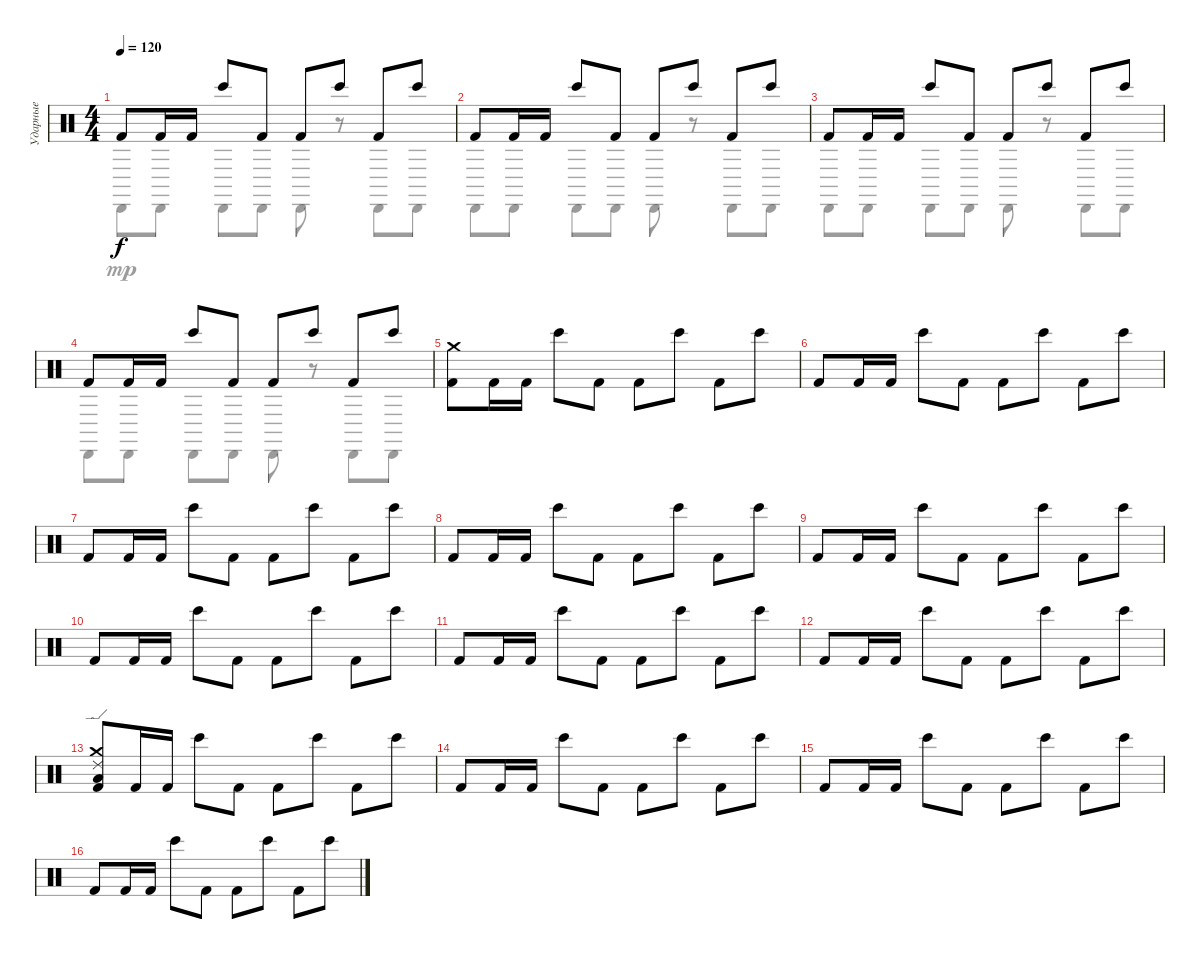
\track ("Ударные" "Ударные") {instrument percussion}
\staff {score}
\articulation defaults
\voice
\ts (4 4)
\tempo 120
\clef neutral
\ks c "Kick (hit) 2".8{dy f} "Kick (hit) 2".16 "Kick (hit) 2".16 "Bongo High (hit)".8 "Kick (hit) 2".8 "Kick (hit) 2".8 "Bongo High (hit)".8 "Kick (hit) 2".8 "Bongo High (hit)".8
|
"Kick (hit) 2".8 "Kick (hit) 2".16 "Kick (hit) 2".16 "Bongo High (hit)".8 "Kick (hit) 2".8 "Kick (hit) 2".8 "Bongo High (hit)".8 "Kick (hit) 2".8 "Bongo High (hit)".8 |
"Kick (hit) 2".8 "Kick (hit) 2".16 "Kick (hit) 2".16 "Bongo High (hit)".8 "Kick (hit) 2".8 "Kick (hit) 2".8 "Bongo High (hit)".8 "Kick (hit) 2".8 "Bongo High (hit)".8 |
"Kick (hit) 2".8 "Kick (hit) 2".16 "Kick (hit) 2".16 "Bongo High (hit)".8 "Kick (hit) 2".8 "Kick (hit) 2".8 "Bongo High (hit)".8 "Kick (hit) 2".8 "Bongo High (hit)".8 |
("Kick (hit) 2" "Crash medium (hit)").8 "Kick (hit) 2".16 "Kick (hit) 2".16 "Bongo High (hit)".8 "Kick (hit) 2".8 "Kick (hit) 2".8 "Bongo High (hit)".8 "Kick (hit) 2".8 "Bongo High (hit)".8 |
"Kick (hit) 2".8 "Kick (hit) 2".16 "Kick (hit) 2".16 "Bongo High (hit)".8 "Kick (hit) 2".8 "Kick (hit) 2".8 "Bongo High (hit)".8 "Kick (hit) 2".8 "Bongo High (hit)".8 |
"Kick (hit) 2".8 "Kick (hit) 2".16 "Kick (hit) 2".16 "Bongo High (hit)".8 "Kick (hit) 2".8 "Kick (hit) 2".8 "Bongo High (hit)".8 "Kick (hit) 2".8 "Bongo High (hit)".8 |
"Kick (hit) 2".8 "Kick (hit) 2".16 "Kick (hit) 2".16 "Bongo High (hit)".8 "Kick (hit) 2".8 "Kick (hit) 2".8 "Bongo High (hit)".8 "Kick (hit) 2".8 "Bongo High (hit)".8 |
"Kick (hit) 2".8 "Kick (hit) 2".16 "Kick (hit) 2".16 "Bongo High (hit)".8 "Kick (hit) 2".8 "Kick (hit) 2".8 "Bongo High (hit)".8 "Kick (hit) 2".8 "Bongo High (hit)".8 |
"Kick (hit) 2".8 "Kick (hit) 2".16 "Kick (hit) 2".16 "Bongo High (hit)".8 "Kick (hit) 2".8 "Kick (hit) 2".8 "Bongo High (hit)".8 "Kick (hit) 2".8 "Bongo High (hit)".8 |
"Kick (hit) 2".8 "Kick (hit) 2".16 "Kick (hit) 2".16 "Bongo High (hit)".8 "Kick (hit) 2".8 "Kick (hit) 2".8 "Bongo High (hit)".8 "Kick (hit) 2".8 "Bongo High (hit)".8 |
"Kick (hit) 2".8 "Kick (hit) 2".16 "Kick (hit) 2".16 "Bongo High (hit)".8 "Kick (hit) 2".8 "Kick (hit) 2".8 "Bongo High (hit)".8 "Kick (hit) 2".8 "Bongo High (hit)".8 |
("Kick (hit) 2" "Crash medium (hit)" "Low Tom (hit)" "Ride (edge) 2").8 "Kick (hit) 2".16 "Kick (hit) 2".16 "Bongo High (hit)".8 "Kick (hit) 2".8 "Kick (hit) 2".8 "Bongo High (hit)".8 "Kick (hit) 2".8 "Bongo High (hit)".8 |
"Kick (hit) 2".8 "Kick (hit) 2".16 "Kick (hit) 2".16 "Bongo High (hit)".8 "Kick (hit) 2".8 "Kick (hit) 2".8 "Bongo High (hit)".8 "Kick (hit) 2".8 "Bongo High (hit)".8 |
"Kick (hit) 2".8 "Kick (hit) 2".16 "Kick (hit) 2".16 "Bongo High (hit)".8 "Kick (hit) 2".8 "Kick (hit) 2".8 "Bongo High (hit)".8 "Kick (hit) 2".8 "Bongo High (hit)".8 |
"Kick (hit) 2".8 "Kick (hit) 2".16 "Kick (hit) 2".16 "Bongo High (hit)".8 "Kick (hit) 2".8 "Kick (hit) 2".8 "Bongo High (hit)".8 "Kick (hit) 2".8 "Bongo High (hit)".8
\voice
\clef neutral
\ottava regular
\simile none
\ks c "Cabasa (hit)".8{dy mp} "Cabasa (hit)".8 "Cabasa (hit)".8 "Cabasa (hit)".8 "Cabasa (hit)".8
r.8 "Cabasa (hit)".8 "Cabasa (hit)".8 |
"Cabasa (hit)".8 "Cabasa (hit)".8 "Cabasa (hit)".8 "Cabasa (hit)".8 "Cabasa (hit)".8 r.8 "Cabasa (hit)".8 "Cabasa (hit)".8 |
"Cabasa (hit)".8 "Cabasa (hit)".8 "Cabasa (hit)".8 "Cabasa (hit)".8 "Cabasa (hit)".8 r.8 "Cabasa (hit)".8 "Cabasa (hit)".8 |
"Cabasa (hit)".8 "Cabasa (hit)".8 "Cabasa (hit)".8 "Cabasa (hit)".8 "Cabasa (hit)".8 r.8 "Cabasa (hit)".8 "Cabasa (hit)".8 |
|
|
|
|
|
|
|
|
|
|
|
